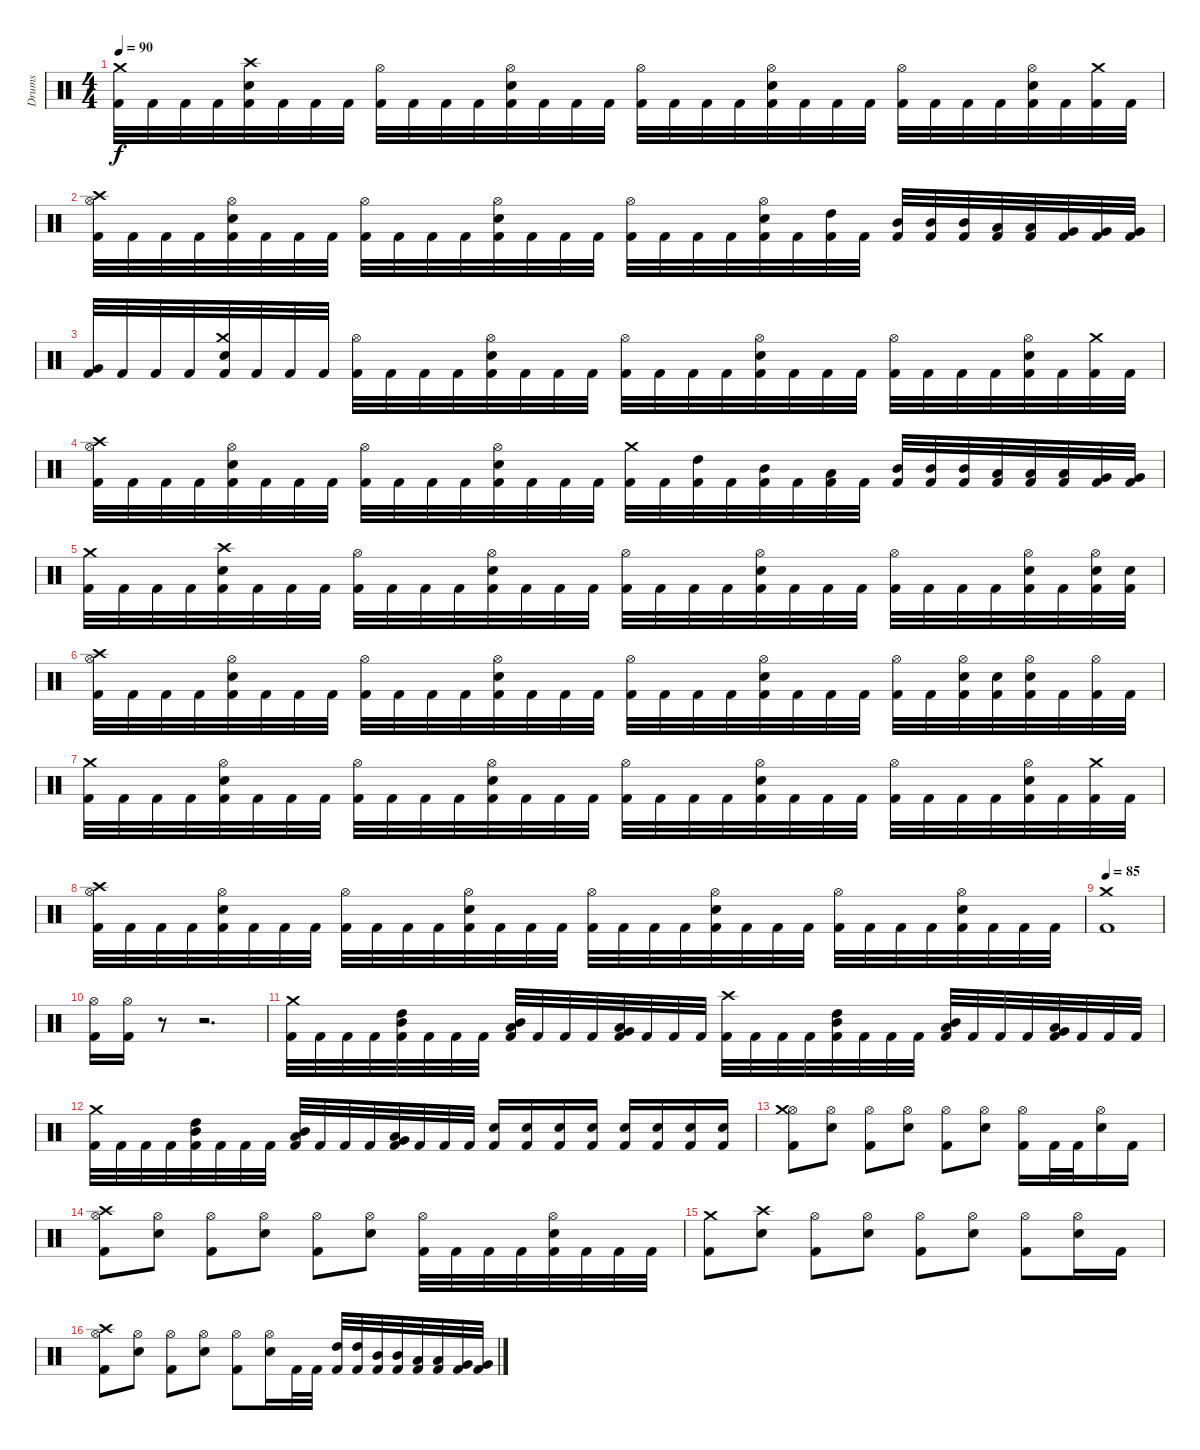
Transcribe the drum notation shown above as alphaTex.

\track ("Drums" "Drums") {instrument percussion}
\staff {score}
\articulation defaults
\ts (4 4)
\tempo 90
\clef neutral
\ks c
("Kick (hit) 2" "Crash medium (hit)").32{dy f} "Kick (hit) 2".32 "Kick (hit) 2".32 "Kick (hit) 2".32 ("Kick (hit) 2" "Electric Snare (hit)" "Crash high (hit)").32 "Kick (hit) 2".32 "Kick (hit) 2".32 "Kick (hit) 2".32 ("Kick (hit) 2" "Hi-Hat (open)").32 "Kick (hit) 2".32 "Kick (hit) 2".32 "Kick (hit) 2".32 ("Kick (hit) 2" "Electric Snare (hit)" "Hi-Hat (open)").32 "Kick (hit) 2".32 "Kick (hit) 2".32 "Kick (hit) 2".32 ("Kick (hit) 2" "Hi-Hat (open)").32 "Kick (hit) 2".32 "Kick (hit) 2".32 "Kick (hit) 2".32 ("Kick (hit) 2" "Electric Snare (hit)" "Hi-Hat (open)").32 "Kick (hit) 2".32 "Kick (hit) 2".32 "Kick (hit) 2".32 ("Kick (hit) 2" "Hi-Hat (open)").32 "Kick (hit) 2".32 "Kick (hit) 2".32 "Kick (hit) 2".32 ("Kick (hit) 2" "Electric Snare (hit)" "Hi-Hat (open)").32 "Kick (hit) 2".32 ("Kick (hit) 2" "Crash medium (hit)").32 "Kick (hit) 2".32 |
("Kick (hit) 2" "Hi-Hat (open)" "Crash high (hit)").32 "Kick (hit) 2".32 "Kick (hit) 2".32 "Kick (hit) 2".32 ("Kick (hit) 2" "Electric Snare (hit)" "Hi-Hat (open)").32 "Kick (hit) 2".32 "Kick (hit) 2".32 "Kick (hit) 2".32 ("Kick (hit) 2" "Hi-Hat (open)").32 "Kick (hit) 2".32 "Kick (hit) 2".32 "Kick (hit) 2".32 ("Kick (hit) 2" "Electric Snare (hit)" "Hi-Hat (open)").32 "Kick (hit) 2".32 "Kick (hit) 2".32 "Kick (hit) 2".32 ("Kick (hit) 2" "Hi-Hat (open)").32 "Kick (hit) 2".32 "Kick (hit) 2".32 "Kick (hit) 2".32 ("Kick (hit) 2" "Electric Snare (hit)" "Hi-Hat (open)").32 "Kick (hit) 2".32 ("Kick (hit) 2" "High Tom (hit)").32 "Kick (hit) 2".32 ("Kick (hit) 2" "Mid Tom (hit)").32 ("Kick (hit) 2" "Mid Tom (hit)").32 ("Kick (hit) 2" "Mid Tom (hit)").32 ("Kick (hit) 2" "Low Tom (hit)").32 ("Kick (hit) 2" "Low Tom (hit)").32 ("Kick (hit) 2" "Very Low Tom (hit)").32 ("Kick (hit) 2" "Very Low Tom (hit)").32 ("Kick (hit) 2" "Very Low Tom (hit)").32 |
("Kick (hit) 2" "Very Low Tom (hit)").32 "Kick (hit) 2".32 "Kick (hit) 2".32 "Kick (hit) 2".32 ("Kick (hit) 2" "Electric Snare (hit)" "Crash medium (hit)").32 "Kick (hit) 2".32 "Kick (hit) 2".32 "Kick (hit) 2".32 ("Kick (hit) 2" "Hi-Hat (open)").32 "Kick (hit) 2".32 "Kick (hit) 2".32 "Kick (hit) 2".32 ("Kick (hit) 2" "Electric Snare (hit)" "Hi-Hat (open)").32 "Kick (hit) 2".32 "Kick (hit) 2".32 "Kick (hit) 2".32 ("Kick (hit) 2" "Hi-Hat (open)").32 "Kick (hit) 2".32 "Kick (hit) 2".32 "Kick (hit) 2".32 ("Kick (hit) 2" "Electric Snare (hit)" "Hi-Hat (open)").32 "Kick (hit) 2".32 "Kick (hit) 2".32 "Kick (hit) 2".32 ("Kick (hit) 2" "Hi-Hat (open)").32 "Kick (hit) 2".32 "Kick (hit) 2".32 "Kick (hit) 2".32 ("Kick (hit) 2" "Electric Snare (hit)" "Hi-Hat (open)").32 "Kick (hit) 2".32 ("Kick (hit) 2" "Crash medium (hit)").32 "Kick (hit) 2".32 |
("Kick (hit) 2" "Hi-Hat (open)" "Crash high (hit)").32 "Kick (hit) 2".32 "Kick (hit) 2".32 "Kick (hit) 2".32 ("Kick (hit) 2" "Electric Snare (hit)" "Hi-Hat (open)").32 "Kick (hit) 2".32 "Kick (hit) 2".32 "Kick (hit) 2".32 ("Kick (hit) 2" "Hi-Hat (open)").32 "Kick (hit) 2".32 "Kick (hit) 2".32 "Kick (hit) 2".32 ("Kick (hit) 2" "Electric Snare (hit)" "Hi-Hat (open)").32 "Kick (hit) 2".32 "Kick (hit) 2".32 "Kick (hit) 2".32 ("Kick (hit) 2" "Crash medium (hit)").32 "Kick (hit) 2".32 ("Kick (hit) 2" "High Tom (hit)").32 "Kick (hit) 2".32 ("Kick (hit) 2" "Mid Tom (hit)").32 "Kick (hit) 2".32 ("Kick (hit) 2" "Low Tom (hit)").32 "Kick (hit) 2".32 ("Kick (hit) 2" "Mid Tom (hit)").32 ("Kick (hit) 2" "Mid Tom (hit)").32 ("Kick (hit) 2" "Mid Tom (hit)").32 ("Kick (hit) 2" "Low Tom (hit)").32 ("Kick (hit) 2" "Low Tom (hit)").32 ("Kick (hit) 2" "Low Tom (hit)").32 ("Kick (hit) 2" "Very Low Tom (hit)").32 ("Kick (hit) 2" "Very Low Tom (hit)").32 |
("Kick (hit) 2" "Crash medium (hit)").32 "Kick (hit) 2".32 "Kick (hit) 2".32 "Kick (hit) 2".32 ("Kick (hit) 2" "Electric Snare (hit)" "Crash high (hit)").32 "Kick (hit) 2".32 "Kick (hit) 2".32 "Kick (hit) 2".32 ("Kick (hit) 2" "Hi-Hat (open)").32 "Kick (hit) 2".32 "Kick (hit) 2".32 "Kick (hit) 2".32 ("Kick (hit) 2" "Electric Snare (hit)" "Hi-Hat (open)").32 "Kick (hit) 2".32 "Kick (hit) 2".32 "Kick (hit) 2".32 ("Kick (hit) 2" "Hi-Hat (open)").32 "Kick (hit) 2".32 "Kick (hit) 2".32 "Kick (hit) 2".32 ("Kick (hit) 2" "Electric Snare (hit)" "Hi-Hat (open)").32 "Kick (hit) 2".32 "Kick (hit) 2".32 "Kick (hit) 2".32 ("Kick (hit) 2" "Hi-Hat (open)").32 "Kick (hit) 2".32 "Kick (hit) 2".32 "Kick (hit) 2".32 ("Kick (hit) 2" "Electric Snare (hit)" "Hi-Hat (open)").32 "Kick (hit) 2".32 ("Kick (hit) 2" "Electric Snare (hit)" "Hi-Hat (open)").32 ("Kick (hit) 2" "Electric Snare (hit)").32 |
("Kick (hit) 2" "Hi-Hat (open)" "Crash high (hit)").32 "Kick (hit) 2".32 "Kick (hit) 2".32 "Kick (hit) 2".32 ("Kick (hit) 2" "Electric Snare (hit)" "Hi-Hat (open)").32 "Kick (hit) 2".32 "Kick (hit) 2".32 "Kick (hit) 2".32 ("Kick (hit) 2" "Hi-Hat (open)").32 "Kick (hit) 2".32 "Kick (hit) 2".32 "Kick (hit) 2".32 ("Kick (hit) 2" "Electric Snare (hit)" "Hi-Hat (open)").32 "Kick (hit) 2".32 "Kick (hit) 2".32 "Kick (hit) 2".32 ("Kick (hit) 2" "Hi-Hat (open)").32 "Kick (hit) 2".32 "Kick (hit) 2".32 "Kick (hit) 2".32 ("Kick (hit) 2" "Electric Snare (hit)" "Hi-Hat (open)").32 "Kick (hit) 2".32 "Kick (hit) 2".32 "Kick (hit) 2".32 ("Kick (hit) 2" "Hi-Hat (open)").32 "Kick (hit) 2".32 ("Kick (hit) 2" "Electric Snare (hit)" "Hi-Hat (open)").32 ("Kick (hit) 2" "Electric Snare (hit)").32 ("Kick (hit) 2" "Electric Snare (hit)" "Hi-Hat (open)").32 "Kick (hit) 2".32 ("Kick (hit) 2" "Hi-Hat (open)").32 "Kick (hit) 2".32 |
("Kick (hit) 2" "Crash medium (hit)").32 "Kick (hit) 2".32 "Kick (hit) 2".32 "Kick (hit) 2".32 ("Kick (hit) 2" "Electric Snare (hit)" "Hi-Hat (open)").32 "Kick (hit) 2".32 "Kick (hit) 2".32 "Kick (hit) 2".32 ("Kick (hit) 2" "Hi-Hat (open)").32 "Kick (hit) 2".32 "Kick (hit) 2".32 "Kick (hit) 2".32 ("Kick (hit) 2" "Electric Snare (hit)" "Hi-Hat (open)").32 "Kick (hit) 2".32 "Kick (hit) 2".32 "Kick (hit) 2".32 ("Kick (hit) 2" "Hi-Hat (open)").32 "Kick (hit) 2".32 "Kick (hit) 2".32 "Kick (hit) 2".32 ("Kick (hit) 2" "Electric Snare (hit)" "Hi-Hat (open)").32 "Kick (hit) 2".32 "Kick (hit) 2".32 "Kick (hit) 2".32 ("Kick (hit) 2" "Hi-Hat (open)").32 "Kick (hit) 2".32 "Kick (hit) 2".32 "Kick (hit) 2".32 ("Kick (hit) 2" "Electric Snare (hit)" "Hi-Hat (open)").32 "Kick (hit) 2".32 ("Kick (hit) 2" "Crash medium (hit)").32 "Kick (hit) 2".32 |
("Kick (hit) 2" "Hi-Hat (open)" "Crash high (hit)").32 "Kick (hit) 2".32 "Kick (hit) 2".32 "Kick (hit) 2".32 ("Kick (hit) 2" "Electric Snare (hit)" "Hi-Hat (open)").32 "Kick (hit) 2".32 "Kick (hit) 2".32 "Kick (hit) 2".32 ("Kick (hit) 2" "Hi-Hat (open)").32 "Kick (hit) 2".32 "Kick (hit) 2".32 "Kick (hit) 2".32 ("Kick (hit) 2" "Electric Snare (hit)" "Hi-Hat (open)").32 "Kick (hit) 2".32 "Kick (hit) 2".32 "Kick (hit) 2".32 ("Kick (hit) 2" "Hi-Hat (open)").32 "Kick (hit) 2".32 "Kick (hit) 2".32 "Kick (hit) 2".32 ("Kick (hit) 2" "Electric Snare (hit)" "Hi-Hat (open)").32 "Kick (hit) 2".32 "Kick (hit) 2".32 "Kick (hit) 2".32 ("Kick (hit) 2" "Hi-Hat (open)").32 "Kick (hit) 2".32 "Kick (hit) 2".32 "Kick (hit) 2".32 ("Kick (hit) 2" "Electric Snare (hit)" "Hi-Hat (open)").32 "Kick (hit) 2".32 "Kick (hit) 2".32 "Kick (hit) 2".32 |
\tempo 85
("Kick (hit) 2" "Crash medium (hit)").1 |
("Kick (hit) 2" "Hi-Hat (open)").16 ("Kick (hit) 2" "Hi-Hat (open)").16 r.8 r.2{d} |
("Kick (hit) 2" "Crash medium (hit)").32 "Kick (hit) 2".32 "Kick (hit) 2".32 "Kick (hit) 2".32 ("Kick (hit) 2" "High Tom (hit)" "Mid Tom (hit)").32 "Kick (hit) 2".32 "Kick (hit) 2".32 "Kick (hit) 2".32 ("Kick (hit) 2" "Mid Tom (hit)" "Low Tom (hit)").32 "Kick (hit) 2".32 "Kick (hit) 2".32 "Kick (hit) 2".32 ("Kick (hit) 2" "Low Tom (hit)" "Very Low Tom (hit)").32 "Kick (hit) 2".32 "Kick (hit) 2".32 "Kick (hit) 2".32 ("Kick (hit) 2" "Crash high (hit)").32 "Kick (hit) 2".32 "Kick (hit) 2".32 "Kick (hit) 2".32 ("Kick (hit) 2" "High Tom (hit)" "Mid Tom (hit)").32 "Kick (hit) 2".32 "Kick (hit) 2".32 "Kick (hit) 2".32 ("Kick (hit) 2" "Mid Tom (hit)" "Low Tom (hit)").32 "Kick (hit) 2".32 "Kick (hit) 2".32 "Kick (hit) 2".32 ("Kick (hit) 2" "Low Tom (hit)" "Very Low Tom (hit)").32 "Kick (hit) 2".32 "Kick (hit) 2".32 "Kick (hit) 2".32 |
("Kick (hit) 2" "Crash medium (hit)").32 "Kick (hit) 2".32 "Kick (hit) 2".32 "Kick (hit) 2".32 ("Kick (hit) 2" "High Tom (hit)" "Mid Tom (hit)").32 "Kick (hit) 2".32 "Kick (hit) 2".32 "Kick (hit) 2".32 ("Kick (hit) 2" "Mid Tom (hit)" "Low Tom (hit)").32 "Kick (hit) 2".32 "Kick (hit) 2".32 "Kick (hit) 2".32 ("Kick (hit) 2" "Low Tom (hit)" "Very Low Tom (hit)").32 "Kick (hit) 2".32 "Kick (hit) 2".32 "Kick (hit) 2".32 ("Kick (hit) 2" "Electric Snare (hit)").16 ("Kick (hit) 2" "Electric Snare (hit)").16 ("Kick (hit) 2" "Electric Snare (hit)").16 ("Kick (hit) 2" "Electric Snare (hit)").16 ("Kick (hit) 2" "Electric Snare (hit)").16 ("Kick (hit) 2" "Electric Snare (hit)").16 ("Kick (hit) 2" "Electric Snare (hit)").16 ("Kick (hit) 2" "Electric Snare (hit)").16 |
("Kick (hit) 2" "Hi-Hat (open)" "Crash medium (hit)").8 ("Electric Snare (hit)" "Hi-Hat (open)").8 ("Kick (hit) 2" "Hi-Hat (open)").8 ("Electric Snare (hit)" "Hi-Hat (open)").8 ("Kick (hit) 2" "Hi-Hat (open)").8 ("Electric Snare (hit)" "Hi-Hat (open)").8 ("Kick (hit) 2" "Hi-Hat (open)").16 "Kick (hit) 2".32 "Kick (hit) 2".32 ("Electric Snare (hit)" "Hi-Hat (open)").16 "Kick (hit) 2".16 |
("Kick (hit) 2" "Hi-Hat (open)" "Crash high (hit)").8 ("Electric Snare (hit)" "Hi-Hat (open)").8 ("Kick (hit) 2" "Hi-Hat (open)").8 ("Electric Snare (hit)" "Hi-Hat (open)").8 ("Kick (hit) 2" "Hi-Hat (open)").8 ("Electric Snare (hit)" "Hi-Hat (open)").8 ("Kick (hit) 2" "Hi-Hat (open)").32 "Kick (hit) 2".32 "Kick (hit) 2".32 "Kick (hit) 2".32 ("Kick (hit) 2" "Electric Snare (hit)" "Hi-Hat (open)").32 "Kick (hit) 2".32 "Kick (hit) 2".32 "Kick (hit) 2".32 |
("Kick (hit) 2" "Crash medium (hit)").8 ("Electric Snare (hit)" "Crash high (hit)").8 ("Kick (hit) 2" "Hi-Hat (open)").8 ("Electric Snare (hit)" "Hi-Hat (open)").8 ("Kick (hit) 2" "Hi-Hat (open)").8 ("Electric Snare (hit)" "Hi-Hat (open)").8 ("Kick (hit) 2" "Hi-Hat (open)").8 ("Electric Snare (hit)" "Hi-Hat (open)").16 "Kick (hit) 2".16 |
("Kick (hit) 2" "Hi-Hat (open)" "Crash high (hit)").8 ("Electric Snare (hit)" "Hi-Hat (open)").8 ("Kick (hit) 2" "Hi-Hat (open)").8 ("Electric Snare (hit)" "Hi-Hat (open)").8 ("Kick (hit) 2" "Hi-Hat (open)").8 ("Electric Snare (hit)" "Hi-Hat (open)").16 "Kick (hit) 2".32 "Kick (hit) 2".32 ("Kick (hit) 2" "High Tom (hit)").32 ("Kick (hit) 2" "High Tom (hit)").32 ("Kick (hit) 2" "Mid Tom (hit)").32 ("Kick (hit) 2" "Mid Tom (hit)").32 ("Kick (hit) 2" "Low Tom (hit)").32 ("Kick (hit) 2" "Low Tom (hit)").32 ("Kick (hit) 2" "Very Low Tom (hit)").32 ("Kick (hit) 2" "Very Low Tom (hit)").32
